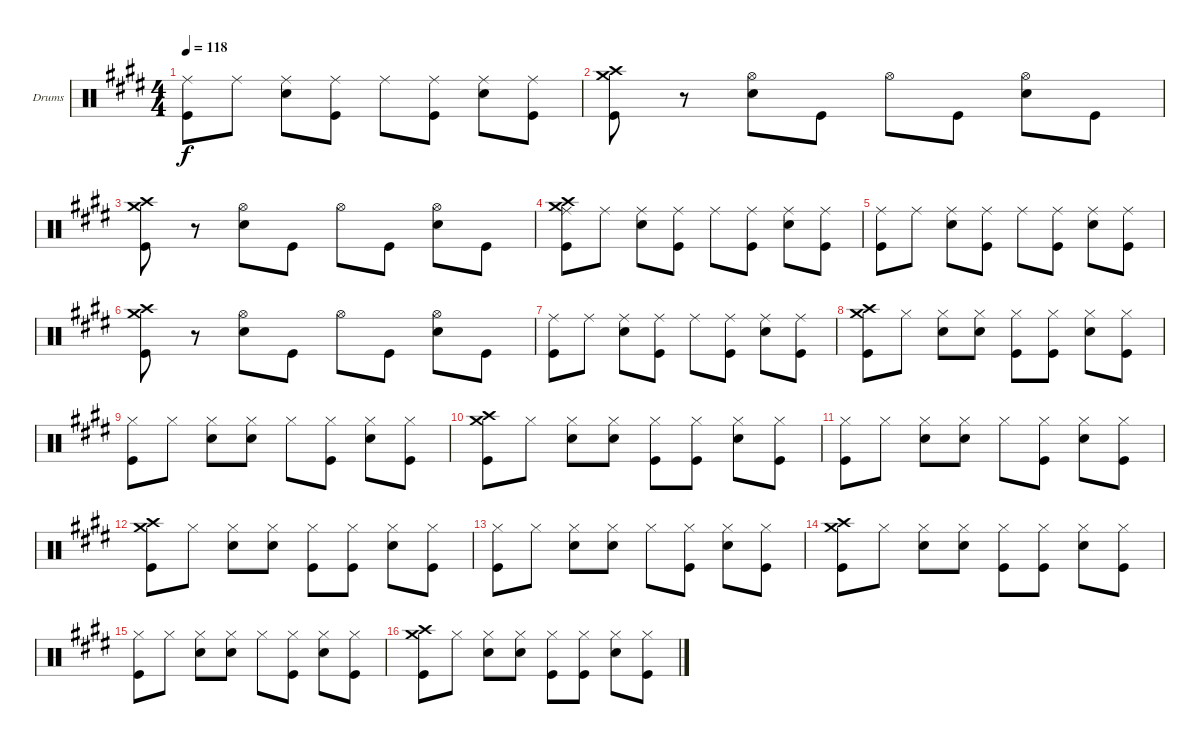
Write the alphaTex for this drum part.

\defaultSystemsLayout 4
\bracketExtendMode groupsimilarinstruments
\firstSystemTrackNameOrientation horizontal
\otherSystemsTrackNameOrientation horizontal
\track ("Drumkit" "Drums") {instrument percussion}
\staff {score}
\articulation defaults
\ts (4 4)
\tempo 118
\clef neutral
\ks e
("Ride (middle)" "Kick (hit)").8{dy f} "Ride (middle)".8 ("Ride (middle)" "Snare (hit) 2").8 ("Ride (middle)" "Kick (hit)").8 "Ride (middle)".8 ("Ride (middle)" "Kick (hit)").8 ("Ride (middle)" "Snare (hit) 2").8 ("Ride (middle)" "Kick (hit)").8 |
("Crash medium (hit)" "Crash high (hit)" "Kick (hit)").8 r.8 ("Hi-Hat (open)" "Snare (hit) 2").8 "Kick (hit)".8 "Hi-Hat (open)".8 "Kick (hit)".8 ("Hi-Hat (open)" "Snare (hit) 2").8 "Kick (hit)".8 |
("Crash medium (hit)" "Crash high (hit)" "Kick (hit)").8 r.8 ("Hi-Hat (open)" "Snare (hit) 2").8 "Kick (hit)".8 "Hi-Hat (open)".8 "Kick (hit)".8 ("Hi-Hat (open)" "Snare (hit) 2").8 "Kick (hit)".8 |
("Crash high (hit)" "Crash medium (hit)" "Ride (middle)" "Kick (hit)").8 "Ride (middle)".8 ("Ride (middle)" "Snare (hit) 2").8 ("Ride (middle)" "Kick (hit)").8 "Ride (middle)".8 ("Ride (middle)" "Kick (hit)").8 ("Ride (middle)" "Snare (hit) 2").8 ("Ride (middle)" "Kick (hit)").8 |
("Ride (middle)" "Kick (hit)").8 "Ride (middle)".8 ("Ride (middle)" "Snare (hit) 2").8 ("Ride (middle)" "Kick (hit)").8 "Ride (middle)".8 ("Ride (middle)" "Kick (hit)").8 ("Ride (middle)" "Snare (hit) 2").8 ("Ride (middle)" "Kick (hit)").8 |
("Crash medium (hit)" "Crash high (hit)" "Kick (hit)").8 r.8 ("Hi-Hat (open)" "Snare (hit) 2").8 "Kick (hit)".8 "Hi-Hat (open)".8 "Kick (hit)".8 ("Hi-Hat (open)" "Snare (hit) 2").8 "Kick (hit)".8 |
("Ride (middle)" "Kick (hit)").8 "Ride (middle)".8 ("Ride (middle)" "Snare (hit) 2").8 ("Ride (middle)" "Kick (hit)").8 "Ride (middle)".8 ("Ride (middle)" "Kick (hit)").8 ("Ride (middle)" "Snare (hit) 2").8 ("Ride (middle)" "Kick (hit)").8 |
("Crash medium (hit)" "Crash high (hit)" "Kick (hit)").8 "Hi-Hat (closed)".8 ("Hi-Hat (closed)" "Snare (hit) 2").8 ("Hi-Hat (closed)" "Snare (hit) 2").8 ("Hi-Hat (closed)" "Kick (hit)").8 ("Hi-Hat (closed)" "Kick (hit)").8 ("Hi-Hat (closed)" "Snare (hit) 2").8 ("Hi-Hat (closed)" "Kick (hit)").8 |
("Hi-Hat (closed)" "Kick (hit)").8 "Hi-Hat (closed)".8 ("Hi-Hat (closed)" "Snare (hit) 2").8 ("Hi-Hat (closed)" "Snare (hit) 2").8 "Hi-Hat (closed)".8 ("Hi-Hat (closed)" "Kick (hit)").8 ("Hi-Hat (closed)" "Snare (hit) 2").8 ("Hi-Hat (closed)" "Kick (hit)").8 |
("Crash medium (hit)" "Crash high (hit)" "Kick (hit)").8 "Hi-Hat (closed)".8 ("Hi-Hat (closed)" "Snare (hit) 2").8 ("Hi-Hat (closed)" "Snare (hit) 2").8 ("Hi-Hat (closed)" "Kick (hit)").8 ("Hi-Hat (closed)" "Kick (hit)").8 ("Hi-Hat (closed)" "Snare (hit) 2").8 ("Hi-Hat (closed)" "Kick (hit)").8 |
("Hi-Hat (closed)" "Kick (hit)").8 "Hi-Hat (closed)".8 ("Hi-Hat (closed)" "Snare (hit) 2").8 ("Hi-Hat (closed)" "Snare (hit) 2").8 "Hi-Hat (closed)".8 ("Hi-Hat (closed)" "Kick (hit)").8 ("Hi-Hat (closed)" "Snare (hit) 2").8 ("Hi-Hat (closed)" "Kick (hit)").8 |
("Crash medium (hit)" "Crash high (hit)" "Kick (hit)").8 "Hi-Hat (closed)".8 ("Hi-Hat (closed)" "Snare (hit) 2").8 ("Hi-Hat (closed)" "Snare (hit) 2").8 ("Hi-Hat (closed)" "Kick (hit)").8 ("Hi-Hat (closed)" "Kick (hit)").8 ("Hi-Hat (closed)" "Snare (hit) 2").8 ("Hi-Hat (closed)" "Kick (hit)").8 |
("Hi-Hat (closed)" "Kick (hit)").8 "Hi-Hat (closed)".8 ("Hi-Hat (closed)" "Snare (hit) 2").8 ("Hi-Hat (closed)" "Snare (hit) 2").8 "Hi-Hat (closed)".8 ("Hi-Hat (closed)" "Kick (hit)").8 ("Hi-Hat (closed)" "Snare (hit) 2").8 ("Hi-Hat (closed)" "Kick (hit)").8 |
("Crash medium (hit)" "Crash high (hit)" "Kick (hit)").8 "Hi-Hat (closed)".8 ("Hi-Hat (closed)" "Snare (hit) 2").8 ("Hi-Hat (closed)" "Snare (hit) 2").8 ("Hi-Hat (closed)" "Kick (hit)").8 ("Hi-Hat (closed)" "Kick (hit)").8 ("Hi-Hat (closed)" "Snare (hit) 2").8 ("Hi-Hat (closed)" "Kick (hit)").8 |
("Hi-Hat (closed)" "Kick (hit)").8 "Hi-Hat (closed)".8 ("Hi-Hat (closed)" "Snare (hit) 2").8 ("Hi-Hat (closed)" "Snare (hit) 2").8 "Hi-Hat (closed)".8 ("Hi-Hat (closed)" "Kick (hit)").8 ("Hi-Hat (closed)" "Snare (hit) 2").8 ("Hi-Hat (closed)" "Kick (hit)").8 |
("Crash medium (hit)" "Crash high (hit)" "Kick (hit)").8 "Hi-Hat (closed)".8 ("Hi-Hat (closed)" "Snare (hit) 2").8 ("Hi-Hat (closed)" "Snare (hit) 2").8 ("Hi-Hat (closed)" "Kick (hit)").8 ("Hi-Hat (closed)" "Kick (hit)").8 ("Hi-Hat (closed)" "Snare (hit) 2").8 ("Hi-Hat (closed)" "Kick (hit)").8
